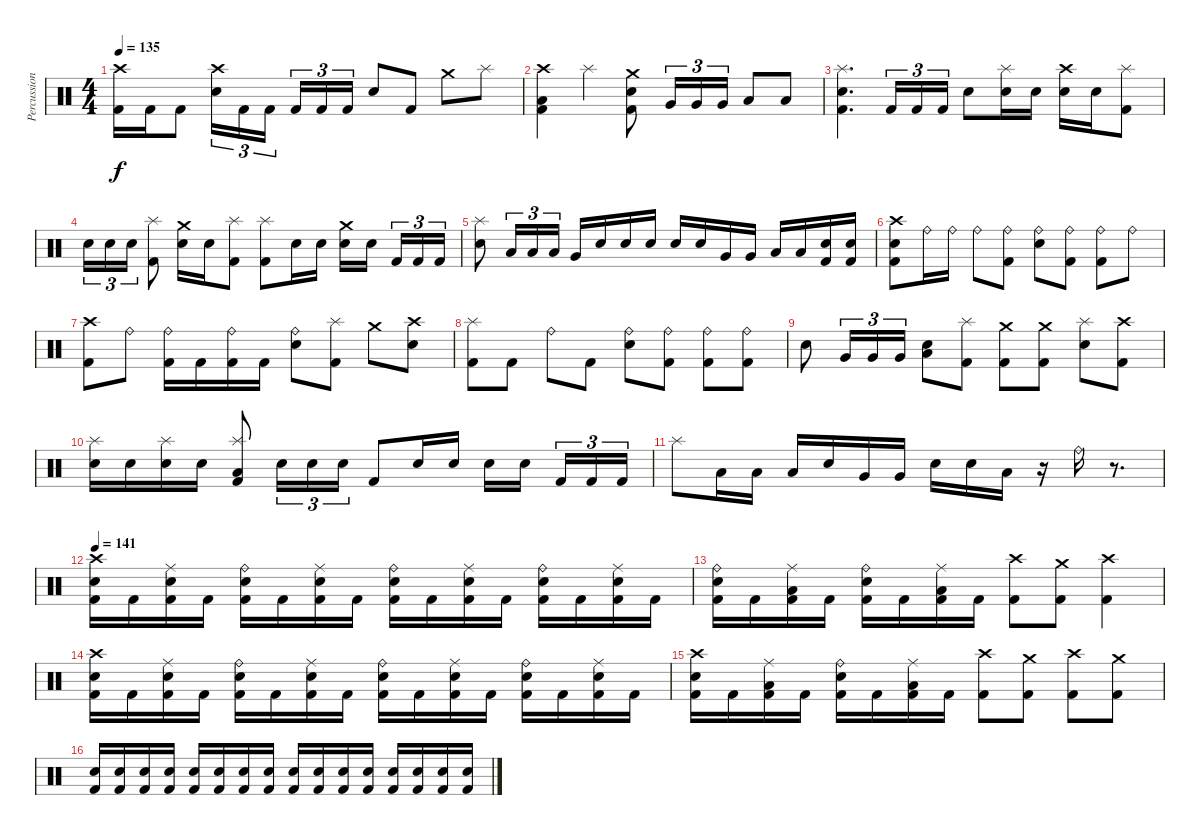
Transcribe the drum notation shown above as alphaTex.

\track ("Percussion" "Percussion") {instrument percussion}
\staff {score}
\articulation defaults
\ts (4 4)
\tempo 135
\clef neutral
\ks c
("Crash high (hit)" "Kick (hit) 2").16{dy f} "Kick (hit) 2".16 "Kick (hit) 2".8 ("Crash high (hit)" "Electric Snare (hit)").16{tu (3 2)} "Kick (hit) 2".16{tu (3 2)} "Kick (hit) 2".16{tu (3 2) beam splitsecondary} "Kick (hit) 2".16{tu (3 2)} "Kick (hit) 2".16{tu (3 2)} "Kick (hit) 2".16{tu (3 2)} "Electric Snare (hit)".8 "Kick (hit) 2".8 "Crash medium (hit)".8 "Splash (hit)".8 |
("Crash high (hit)" "Low Floor Tom (hit)" "Kick (hit) 2").4 "Splash (hit)".4 ("Crash medium (hit)" "Electric Snare (hit)" "Kick (hit) 2").8 "Very Low Tom (hit)".16{tu (3 2)} "Very Low Tom (hit)".16{tu (3 2)} "Very Low Tom (hit)".16{tu (3 2)} "Low Floor Tom (hit)".8 "Low Floor Tom (hit)".8 |
("Splash (hit)" "Electric Snare (hit)" "Kick (hit) 2").4{d} "Kick (hit) 2".16{tu (3 2)} "Kick (hit) 2".16{tu (3 2)} "Kick (hit) 2".16{tu (3 2)} "Electric Snare (hit)".8 ("Splash (hit)" "Electric Snare (hit)").16 "Electric Snare (hit)".16 ("Crash high (hit)" "Electric Snare (hit)").16 "Electric Snare (hit)".16 ("Splash (hit)" "Kick (hit) 2").8 |
"Electric Snare (hit)".16{tu (3 2)} "Electric Snare (hit)".16{tu (3 2)} "Electric Snare (hit)".16{tu (3 2)} ("Splash (hit)" "Kick (hit) 2").8 ("Crash medium (hit)" "Electric Snare (hit)").16 "Electric Snare (hit)".16 ("Splash (hit)" "Kick (hit) 2").8 ("Splash (hit)" "Kick (hit) 2").8 "Electric Snare (hit)".16 "Electric Snare (hit)".16 ("Crash medium (hit)" "Electric Snare (hit)").16 "Electric Snare (hit)".16{beam splitsecondary} "Kick (hit) 2".16{tu (3 2)} "Kick (hit) 2".16{tu (3 2)} "Kick (hit) 2".16{tu (3 2)} |
("Splash (hit)" "Electric Snare (hit)").8 "Low Tom (hit)".16{tu (3 2)} "Low Tom (hit)".16{tu (3 2)} "Low Tom (hit)".16{tu (3 2)} "Very Low Tom (hit)".16 "Electric Snare (hit)".16 "Electric Snare (hit)".16 "Electric Snare (hit)".16 "Electric Snare (hit)".16 "Electric Snare (hit)".16 "Very Low Tom (hit)".16 "Very Low Tom (hit)".16 "Low Floor Tom (hit)".16 "Low Floor Tom (hit)".16 ("Electric Snare (hit)" "Kick (hit) 2").16 ("Electric Snare (hit)" "Kick (hit) 2").16 |
("Crash high (hit)" "Electric Snare (hit)" "Kick (hit) 2").8 "Ride (bell)".16 "Ride (bell)".16 "Ride (bell)".8 ("Ride (bell)" "Kick (hit) 2").8 ("Ride (bell)" "Electric Snare (hit)").8 ("Ride (bell)" "Kick (hit) 2").8 ("Ride (bell)" "Kick (hit) 2").8 "Ride (bell)".8 |
("Crash high (hit)" "Kick (hit) 2").8 "Ride (bell)".8 ("Ride (bell)" "Kick (hit) 2").16 "Kick (hit) 2".16 ("Ride (bell)" "Kick (hit) 2").16 "Kick (hit) 2".16 ("Ride (bell)" "Electric Snare (hit)").8 ("Splash (hit)" "Kick (hit) 2").8 "Crash medium (hit)".8 ("Crash high (hit)" "Electric Snare (hit)").8 |
("Splash (hit)" "Kick (hit) 2").8 "Kick (hit) 2".8 "Ride (bell)".8 "Kick (hit) 2".8 ("Ride (bell)" "Electric Snare (hit)").8 ("Ride (bell)" "Kick (hit) 2").8 ("Ride (bell)" "Kick (hit) 2").8 ("Ride (bell)" "Kick (hit) 2").8 |
"Electric Snare (hit)".8 "Very Low Tom (hit)".16{tu (3 2)} "Very Low Tom (hit)".16{tu (3 2)} "Very Low Tom (hit)".16{tu (3 2)} ("Low Floor Tom (hit)" "Electric Snare (hit)").8 ("Splash (hit)" "Kick (hit) 2").8 ("Crash medium (hit)" "Kick (hit) 2").8 ("Crash medium (hit)" "Kick (hit) 2").8 ("Splash (hit)" "Electric Snare (hit)").8 ("Crash high (hit)" "Kick (hit) 2").8 |
("Splash (hit)" "Electric Snare (hit)").16 "Electric Snare (hit)".16 ("Splash (hit)" "Electric Snare (hit)").16 "Electric Snare (hit)".16 ("Splash (hit)" "Low Floor Tom (hit)" "Kick (hit) 2").8 "Electric Snare (hit)".16{tu (3 2)} "Electric Snare (hit)".16{tu (3 2)} "Electric Snare (hit)".16{tu (3 2)} "Kick (hit) 2".8 "Electric Snare (hit)".16 "Electric Snare (hit)".16 "Electric Snare (hit)".16 "Electric Snare (hit)".16{beam splitsecondary} "Kick (hit) 2".16{tu (3 2)} "Kick (hit) 2".16{tu (3 2)} "Kick (hit) 2".16{tu (3 2)} |
"Splash (hit)".8 "Low Tom (hit)".16 "Low Tom (hit)".16 "Low Tom (hit)".16 "Electric Snare (hit)".16 "Very Low Tom (hit)".16 "Very Low Tom (hit)".16 "Electric Snare (hit)".16 "Electric Snare (hit)".16 "Low Floor Tom (hit)".16 r.16 "Ride (bell)".16 r.8{d} |
\tempo 141
("Crash high (hit)" "Electric Snare (hit)" "Kick (hit) 2").16 "Kick (hit) 2".16 ("Ride (middle)" "Electric Snare (hit)" "Kick (hit) 2").16 "Kick (hit) 2".16 ("Ride (bell)" "Electric Snare (hit)" "Kick (hit) 2").16 "Kick (hit) 2".16 ("Ride (middle)" "Electric Snare (hit)" "Kick (hit) 2").16 "Kick (hit) 2".16 ("Ride (bell)" "Electric Snare (hit)" "Kick (hit) 2").16 "Kick (hit) 2".16 ("Ride (middle)" "Electric Snare (hit)" "Kick (hit) 2").16 "Kick (hit) 2".16 ("Ride (bell)" "Electric Snare (hit)" "Kick (hit) 2").16 "Kick (hit) 2".16 ("Ride (middle)" "Electric Snare (hit)" "Kick (hit) 2").16 "Kick (hit) 2".16 |
("Ride (bell)" "Electric Snare (hit)" "Kick (hit) 2").16 "Kick (hit) 2".16 ("Ride (middle)" "Low Floor Tom (hit)" "Kick (hit) 2").16 "Kick (hit) 2".16 ("Ride (bell)" "Electric Snare (hit)" "Kick (hit) 2").16 "Kick (hit) 2".16 ("Ride (middle)" "Low Floor Tom (hit)" "Kick (hit) 2").16 "Kick (hit) 2".16 ("Crash high (hit)" "Kick (hit) 2").8 ("Crash medium (hit)" "Kick (hit) 2").8 ("Crash high (hit)" "Kick (hit) 2").4 |
("Crash high (hit)" "Electric Snare (hit)" "Kick (hit) 2").16 "Kick (hit) 2".16 ("Ride (middle)" "Electric Snare (hit)" "Kick (hit) 2").16 "Kick (hit) 2".16 ("Ride (bell)" "Electric Snare (hit)" "Kick (hit) 2").16 "Kick (hit) 2".16 ("Ride (middle)" "Electric Snare (hit)" "Kick (hit) 2").16 "Kick (hit) 2".16 ("Ride (bell)" "Electric Snare (hit)" "Kick (hit) 2").16 "Kick (hit) 2".16 ("Ride (middle)" "Electric Snare (hit)" "Kick (hit) 2").16 "Kick (hit) 2".16 ("Ride (bell)" "Electric Snare (hit)" "Kick (hit) 2").16 "Kick (hit) 2".16 ("Ride (middle)" "Electric Snare (hit)" "Kick (hit) 2").16 "Kick (hit) 2".16 |
("Crash high (hit)" "Electric Snare (hit)" "Kick (hit) 2").16 "Kick (hit) 2".16 ("Ride (middle)" "Low Floor Tom (hit)" "Kick (hit) 2").16 "Kick (hit) 2".16 ("Ride (bell)" "Electric Snare (hit)" "Kick (hit) 2").16 "Kick (hit) 2".16 ("Ride (middle)" "Low Floor Tom (hit)" "Kick (hit) 2").16 "Kick (hit) 2".16 ("Crash high (hit)" "Kick (hit) 2").8 ("Crash medium (hit)" "Kick (hit) 2").8 ("Crash high (hit)" "Kick (hit) 2").8 ("Crash medium (hit)" "Kick (hit) 2").8 |
("Electric Snare (hit)" "Kick (hit) 2").16 ("Electric Snare (hit)" "Kick (hit) 2").16 ("Electric Snare (hit)" "Kick (hit) 2").16 ("Electric Snare (hit)" "Kick (hit) 2").16 ("Electric Snare (hit)" "Kick (hit) 2").16 ("Electric Snare (hit)" "Kick (hit) 2").16 ("Electric Snare (hit)" "Kick (hit) 2").16 ("Electric Snare (hit)" "Kick (hit) 2").16 ("Electric Snare (hit)" "Kick (hit) 2").16 ("Electric Snare (hit)" "Kick (hit) 2").16 ("Electric Snare (hit)" "Kick (hit) 2").16 ("Electric Snare (hit)" "Kick (hit) 2").16 ("Electric Snare (hit)" "Kick (hit) 2").16 ("Electric Snare (hit)" "Kick (hit) 2").16 ("Electric Snare (hit)" "Kick (hit) 2").16 ("Electric Snare (hit)" "Kick (hit) 2").16
